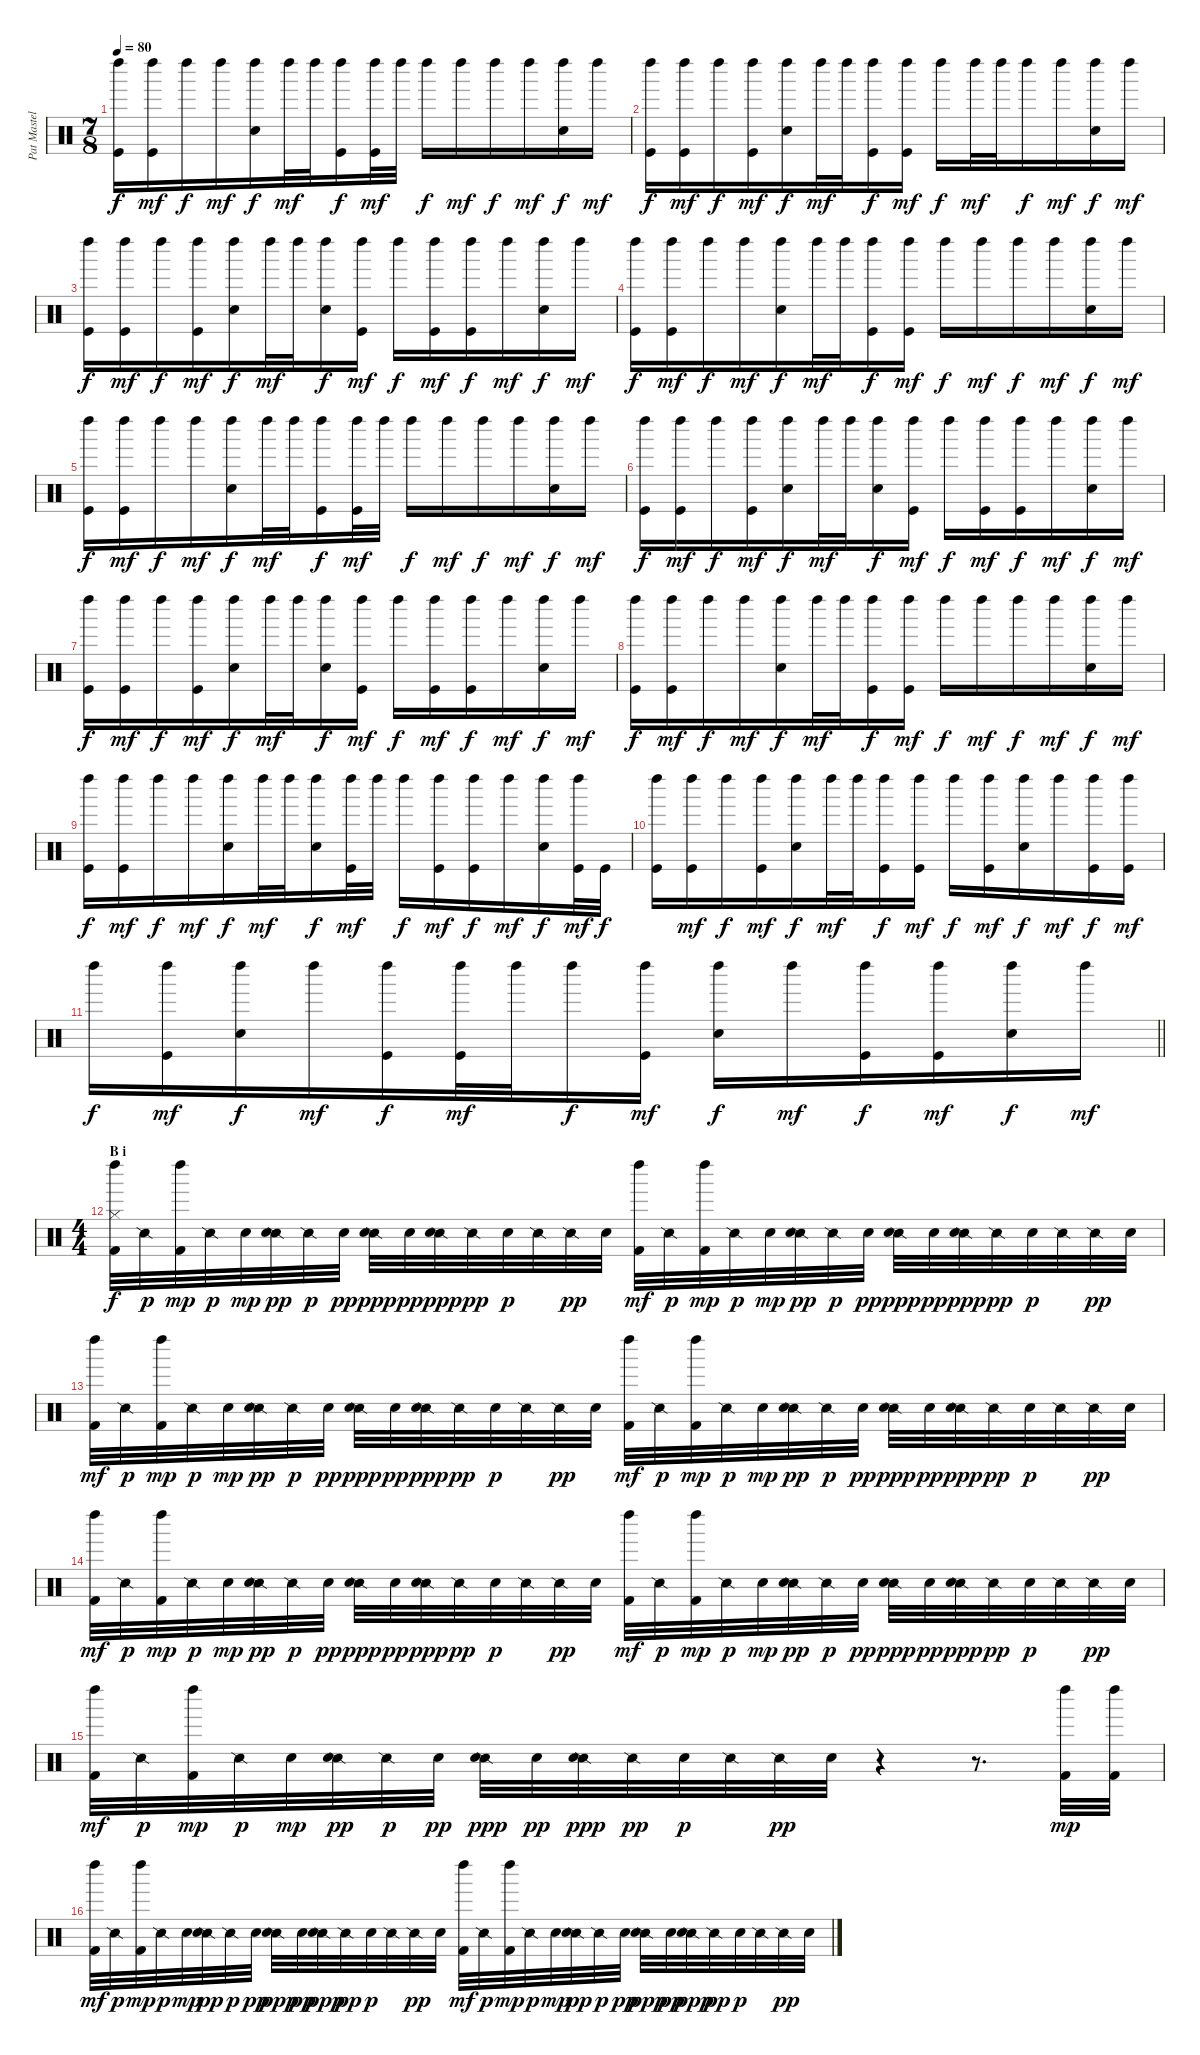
\track ("Pat Mastelotto (Traps / Buttons)" "Pat Mastel") {instrument percussion}
\staff {score}
\articulation defaults
\ts (7 8)
\tempo 80
\clef neutral
\ks c
("Left Maraca (hit)" "Kick (hit)").16{dy f} ("Left Maraca (hit)" "Kick (hit)").16{dy mf} "Left Maraca (hit)".16{dy f} "Left Maraca (hit)".16{dy mf} ("Left Maraca (hit)" "Snare (hit) 2").16{dy f} "Left Maraca (hit)".32{dy mf} "Left Maraca (hit)".32 ("Left Maraca (hit)" "Kick (hit)").16{dy f} ("Left Maraca (hit)" "Kick (hit)").32{dy mf} "Left Maraca (hit)".32 "Left Maraca (hit)".16{dy f} "Left Maraca (hit)".16{dy mf} "Left Maraca (hit)".16{dy f} "Left Maraca (hit)".16{dy mf} ("Left Maraca (hit)" "Snare (hit) 2").16{dy f} "Left Maraca (hit)".16{dy mf} |
("Left Maraca (hit)" "Kick (hit)").16{dy f} ("Left Maraca (hit)" "Kick (hit)").16{dy mf} "Left Maraca (hit)".16{dy f} ("Left Maraca (hit)" "Kick (hit)").16{dy mf} ("Left Maraca (hit)" "Snare (hit) 2").16{dy f} "Left Maraca (hit)".32{dy mf} "Left Maraca (hit)".32 ("Left Maraca (hit)" "Kick (hit)").16{dy f} ("Left Maraca (hit)" "Kick (hit)").16{dy mf} "Left Maraca (hit)".16{dy f} "Left Maraca (hit)".32{dy mf} "Left Maraca (hit)".32 "Left Maraca (hit)".16{dy f} "Left Maraca (hit)".16{dy mf} ("Left Maraca (hit)" "Snare (hit) 2").16{dy f} "Left Maraca (hit)".16{dy mf} |
("Left Maraca (hit)" "Kick (hit)").16{dy f} ("Left Maraca (hit)" "Kick (hit)").16{dy mf} "Left Maraca (hit)".16{dy f} ("Left Maraca (hit)" "Kick (hit)").16{dy mf} ("Left Maraca (hit)" "Snare (hit) 2").16{dy f} "Left Maraca (hit)".32{dy mf} "Left Maraca (hit)".32 ("Left Maraca (hit)" "Snare (hit) 2").16{dy f} ("Left Maraca (hit)" "Kick (hit)").16{dy mf} "Left Maraca (hit)".16{dy f} ("Left Maraca (hit)" "Kick (hit)").16{dy mf} ("Left Maraca (hit)" "Kick (hit)").16{dy f} "Left Maraca (hit)".16{dy mf} ("Left Maraca (hit)" "Snare (hit) 2").16{dy f} "Left Maraca (hit)".16{dy mf} |
("Left Maraca (hit)" "Kick (hit)").16{dy f} ("Left Maraca (hit)" "Kick (hit)").16{dy mf} "Left Maraca (hit)".16{dy f} "Left Maraca (hit)".16{dy mf} ("Left Maraca (hit)" "Snare (hit) 2").16{dy f} "Left Maraca (hit)".32{dy mf} "Left Maraca (hit)".32 ("Left Maraca (hit)" "Kick (hit)").16{dy f} ("Left Maraca (hit)" "Kick (hit)").16{dy mf} "Left Maraca (hit)".16{dy f} "Left Maraca (hit)".16{dy mf} "Left Maraca (hit)".16{dy f} "Left Maraca (hit)".16{dy mf} ("Left Maraca (hit)" "Snare (hit) 2").16{dy f} "Left Maraca (hit)".16{dy mf} |
("Left Maraca (hit)" "Kick (hit)").16{dy f} ("Left Maraca (hit)" "Kick (hit)").16{dy mf} "Left Maraca (hit)".16{dy f} "Left Maraca (hit)".16{dy mf} ("Left Maraca (hit)" "Snare (hit) 2").16{dy f} "Left Maraca (hit)".32{dy mf} "Left Maraca (hit)".32 ("Left Maraca (hit)" "Kick (hit)").16{dy f} ("Left Maraca (hit)" "Kick (hit)").32{dy mf} "Left Maraca (hit)".32 "Left Maraca (hit)".16{dy f} "Left Maraca (hit)".16{dy mf} "Left Maraca (hit)".16{dy f} "Left Maraca (hit)".16{dy mf} ("Left Maraca (hit)" "Snare (hit) 2").16{dy f} "Left Maraca (hit)".16{dy mf} |
("Left Maraca (hit)" "Kick (hit)").16{dy f} ("Left Maraca (hit)" "Kick (hit)").16{dy mf} "Left Maraca (hit)".16{dy f} ("Left Maraca (hit)" "Kick (hit)").16{dy mf} ("Left Maraca (hit)" "Snare (hit) 2").16{dy f} "Left Maraca (hit)".32{dy mf} "Left Maraca (hit)".32 ("Left Maraca (hit)" "Snare (hit) 2").16{dy f} ("Left Maraca (hit)" "Kick (hit)").16{dy mf} "Left Maraca (hit)".16{dy f} ("Left Maraca (hit)" "Kick (hit)").16{dy mf} ("Left Maraca (hit)" "Kick (hit)").16{dy f} "Left Maraca (hit)".16{dy mf} ("Left Maraca (hit)" "Snare (hit) 2").16{dy f} "Left Maraca (hit)".16{dy mf} |
("Left Maraca (hit)" "Kick (hit)").16{dy f} ("Left Maraca (hit)" "Kick (hit)").16{dy mf} "Left Maraca (hit)".16{dy f} ("Left Maraca (hit)" "Kick (hit)").16{dy mf} ("Left Maraca (hit)" "Snare (hit) 2").16{dy f} "Left Maraca (hit)".32{dy mf} "Left Maraca (hit)".32 ("Left Maraca (hit)" "Snare (hit) 2").16{dy f} ("Left Maraca (hit)" "Kick (hit)").16{dy mf} "Left Maraca (hit)".16{dy f} ("Left Maraca (hit)" "Kick (hit)").16{dy mf} ("Left Maraca (hit)" "Kick (hit)").16{dy f} "Left Maraca (hit)".16{dy mf} ("Left Maraca (hit)" "Snare (hit) 2").16{dy f} "Left Maraca (hit)".16{dy mf} |
("Left Maraca (hit)" "Kick (hit)").16{dy f} ("Left Maraca (hit)" "Kick (hit)").16{dy mf} "Left Maraca (hit)".16{dy f} "Left Maraca (hit)".16{dy mf} ("Left Maraca (hit)" "Snare (hit) 2").16{dy f} "Left Maraca (hit)".32{dy mf} "Left Maraca (hit)".32 ("Left Maraca (hit)" "Kick (hit)").16{dy f} ("Left Maraca (hit)" "Kick (hit)").16{dy mf} "Left Maraca (hit)".16{dy f} "Left Maraca (hit)".16{dy mf} "Left Maraca (hit)".16{dy f} "Left Maraca (hit)".16{dy mf} ("Left Maraca (hit)" "Snare (hit) 2").16{dy f} "Left Maraca (hit)".16{dy mf} |
("Left Maraca (hit)" "Kick (hit)").16{dy f} ("Left Maraca (hit)" "Kick (hit)").16{dy mf} "Left Maraca (hit)".16{dy f} "Left Maraca (hit)".16{dy mf} ("Left Maraca (hit)" "Snare (hit) 2").16{dy f} "Left Maraca (hit)".32{dy mf} "Left Maraca (hit)".32 ("Left Maraca (hit)" "Snare (hit) 2").16{dy f} ("Left Maraca (hit)" "Kick (hit)").32{dy mf} "Left Maraca (hit)".32 "Left Maraca (hit)".16{dy f} ("Left Maraca (hit)" "Kick (hit)").16{dy mf} ("Left Maraca (hit)" "Kick (hit)").16{dy f} "Left Maraca (hit)".16{dy mf} ("Left Maraca (hit)" "Snare (hit) 2").16{dy f} ("Left Maraca (hit)" "Kick (hit)").32{dy mf} "Kick (hit)".32{dy f} |
("Left Maraca (hit)" "Kick (hit)").16 ("Left Maraca (hit)" "Kick (hit)").16{dy mf} "Left Maraca (hit)".16{dy f} ("Left Maraca (hit)" "Kick (hit)").16{dy mf} ("Left Maraca (hit)" "Snare (hit) 2").16{dy f} "Left Maraca (hit)".32{dy mf} "Left Maraca (hit)".32 ("Left Maraca (hit)" "Kick (hit)").16{dy f} ("Left Maraca (hit)" "Kick (hit)").16{dy mf} "Left Maraca (hit)".16{dy f} ("Left Maraca (hit)" "Kick (hit)").16{dy mf} ("Left Maraca (hit)" "Snare (hit) 2").16{dy f} "Left Maraca (hit)".16{dy mf} ("Left Maraca (hit)" "Kick (hit)").16{dy f} ("Left Maraca (hit)" "Kick (hit)").16{dy mf} |
\barLineRight lightlight "Left Maraca (hit)".16{dy f}
("Left Maraca (hit)" "Kick (hit)").16{dy mf} ("Left Maraca (hit)" "Snare (hit) 2").16{dy f} "Left Maraca (hit)".16{dy mf} ("Left Maraca (hit)" "Kick (hit)").16{dy f} ("Left Maraca (hit)" "Kick (hit)").32{dy mf} "Left Maraca (hit)".32 "Left Maraca (hit)".16{dy f} ("Left Maraca (hit)" "Kick (hit)").16{dy mf} ("Left Maraca (hit)" "Snare (hit) 2").16{dy f} "Left Maraca (hit)".16{dy mf} ("Left Maraca (hit)" "Kick (hit)").16{dy f} ("Left Maraca (hit)" "Kick (hit)").16{dy mf} ("Left Maraca (hit)" "Snare (hit) 2").16{dy f} "Left Maraca (hit)".16{dy mf} |
\ts (4 4)
\section ("" "B i")
("Hi-Hat (closed)" "Left Maraca (hit)" "Kick (hit) 2").32{dy f} "Snare (side stick) 2".32{dy p} ("Left Maraca (hit)" "Kick (hit) 2").32{dy mp} "Snare (side stick) 2".32{dy p} "Electric Snare (hit)".32{dy mp} ("Snare (side stick) 2" "Electric Snare (hit)").32{dy pp} "Snare (side stick) 2".32{dy p} "Electric Snare (hit)".32{dy pp} ("Snare (side stick) 2" "Electric Snare (hit)").32{dy ppp} "Electric Snare (hit)".32{dy pp} ("Snare (side stick) 2" "Electric Snare (hit)").32{dy ppp} "Snare (side stick) 2".32{dy pp} "Electric Snare (hit)".32{dy p} "Snare (side stick) 2".32 "Snare (side stick) 2".32{dy pp} "Electric Snare (hit)".32 ("Left Maraca (hit)" "Kick (hit) 2").32{dy mf} "Snare (side stick) 2".32{dy p} ("Left Maraca (hit)" "Kick (hit) 2").32{dy mp} "Snare (side stick) 2".32{dy p} "Electric Snare (hit)".32{dy mp} ("Snare (side stick) 2" "Electric Snare (hit)").32{dy pp} "Snare (side stick) 2".32{dy p} "Electric Snare (hit)".32{dy pp} ("Snare (side stick) 2" "Electric Snare (hit)").32{dy ppp} "Electric Snare (hit)".32{dy pp} ("Snare (side stick) 2" "Electric Snare (hit)").32{dy ppp} "Snare (side stick) 2".32{dy pp} "Electric Snare (hit)".32{dy p} "Snare (side stick) 2".32 "Snare (side stick) 2".32{dy pp} "Electric Snare (hit)".32 |
("Left Maraca (hit)" "Kick (hit) 2").32{dy mf} "Snare (side stick) 2".32{dy p} ("Left Maraca (hit)" "Kick (hit) 2").32{dy mp} "Snare (side stick) 2".32{dy p} "Electric Snare (hit)".32{dy mp} ("Snare (side stick) 2" "Electric Snare (hit)").32{dy pp} "Snare (side stick) 2".32{dy p} "Electric Snare (hit)".32{dy pp} ("Snare (side stick) 2" "Electric Snare (hit)").32{dy ppp} "Electric Snare (hit)".32{dy pp} ("Snare (side stick) 2" "Electric Snare (hit)").32{dy ppp} "Snare (side stick) 2".32{dy pp} "Electric Snare (hit)".32{dy p} "Snare (side stick) 2".32 "Snare (side stick) 2".32{dy pp} "Electric Snare (hit)".32 ("Left Maraca (hit)" "Kick (hit) 2").32{dy mf} "Snare (side stick) 2".32{dy p} ("Left Maraca (hit)" "Kick (hit) 2").32{dy mp} "Snare (side stick) 2".32{dy p} "Electric Snare (hit)".32{dy mp} ("Snare (side stick) 2" "Electric Snare (hit)").32{dy pp} "Snare (side stick) 2".32{dy p} "Electric Snare (hit)".32{dy pp} ("Snare (side stick) 2" "Electric Snare (hit)").32{dy ppp} "Electric Snare (hit)".32{dy pp} ("Snare (side stick) 2" "Electric Snare (hit)").32{dy ppp} "Snare (side stick) 2".32{dy pp} "Electric Snare (hit)".32{dy p} "Snare (side stick) 2".32 "Snare (side stick) 2".32{dy pp} "Electric Snare (hit)".32 |
("Left Maraca (hit)" "Kick (hit) 2").32{dy mf} "Snare (side stick) 2".32{dy p} ("Left Maraca (hit)" "Kick (hit) 2").32{dy mp} "Snare (side stick) 2".32{dy p} "Electric Snare (hit)".32{dy mp} ("Snare (side stick) 2" "Electric Snare (hit)").32{dy pp} "Snare (side stick) 2".32{dy p} "Electric Snare (hit)".32{dy pp} ("Snare (side stick) 2" "Electric Snare (hit)").32{dy ppp} "Electric Snare (hit)".32{dy pp} ("Snare (side stick) 2" "Electric Snare (hit)").32{dy ppp} "Snare (side stick) 2".32{dy pp} "Electric Snare (hit)".32{dy p} "Snare (side stick) 2".32 "Snare (side stick) 2".32{dy pp} "Electric Snare (hit)".32 ("Left Maraca (hit)" "Kick (hit) 2").32{dy mf} "Snare (side stick) 2".32{dy p} ("Left Maraca (hit)" "Kick (hit) 2").32{dy mp} "Snare (side stick) 2".32{dy p} "Electric Snare (hit)".32{dy mp} ("Snare (side stick) 2" "Electric Snare (hit)").32{dy pp} "Snare (side stick) 2".32{dy p} "Electric Snare (hit)".32{dy pp} ("Snare (side stick) 2" "Electric Snare (hit)").32{dy ppp} "Electric Snare (hit)".32{dy pp} ("Snare (side stick) 2" "Electric Snare (hit)").32{dy ppp} "Snare (side stick) 2".32{dy pp} "Electric Snare (hit)".32{dy p} "Snare (side stick) 2".32 "Snare (side stick) 2".32{dy pp} "Electric Snare (hit)".32 |
("Left Maraca (hit)" "Kick (hit) 2").32{dy mf} "Snare (side stick) 2".32{dy p} ("Left Maraca (hit)" "Kick (hit) 2").32{dy mp} "Snare (side stick) 2".32{dy p} "Electric Snare (hit)".32{dy mp} ("Snare (side stick) 2" "Electric Snare (hit)").32{dy pp} "Snare (side stick) 2".32{dy p} "Electric Snare (hit)".32{dy pp} ("Snare (side stick) 2" "Electric Snare (hit)").32{dy ppp} "Electric Snare (hit)".32{dy pp} ("Snare (side stick) 2" "Electric Snare (hit)").32{dy ppp} "Snare (side stick) 2".32{dy pp} "Electric Snare (hit)".32{dy p} "Snare (side stick) 2".32 "Snare (side stick) 2".32{dy pp} "Electric Snare (hit)".32 r.4 r.8{d} ("Left Maraca (hit)" "Kick (hit) 2").32{dy mp} ("Left Maraca (hit)" "Kick (hit) 2").32 |
("Left Maraca (hit)" "Kick (hit) 2").32{dy mf} "Snare (side stick) 2".32{dy p} ("Left Maraca (hit)" "Kick (hit) 2").32{dy mp} "Snare (side stick) 2".32{dy p} "Electric Snare (hit)".32{dy mp} ("Snare (side stick) 2" "Electric Snare (hit)").32{dy pp} "Snare (side stick) 2".32{dy p} "Electric Snare (hit)".32{dy pp} ("Snare (side stick) 2" "Electric Snare (hit)").32{dy ppp} "Electric Snare (hit)".32{dy pp} ("Snare (side stick) 2" "Electric Snare (hit)").32{dy ppp} "Snare (side stick) 2".32{dy pp} "Electric Snare (hit)".32{dy p} "Snare (side stick) 2".32 "Snare (side stick) 2".32{dy pp} "Electric Snare (hit)".32 ("Left Maraca (hit)" "Kick (hit) 2").32{dy mf} "Snare (side stick) 2".32{dy p} ("Left Maraca (hit)" "Kick (hit) 2").32{dy mp} "Snare (side stick) 2".32{dy p} "Electric Snare (hit)".32{dy mp} ("Snare (side stick) 2" "Electric Snare (hit)").32{dy pp} "Snare (side stick) 2".32{dy p} "Electric Snare (hit)".32{dy pp} ("Snare (side stick) 2" "Electric Snare (hit)").32{dy ppp} "Electric Snare (hit)".32{dy pp} ("Snare (side stick) 2" "Electric Snare (hit)").32{dy ppp} "Snare (side stick) 2".32{dy pp} "Electric Snare (hit)".32{dy p} "Snare (side stick) 2".32 "Snare (side stick) 2".32{dy pp} "Electric Snare (hit)".32
